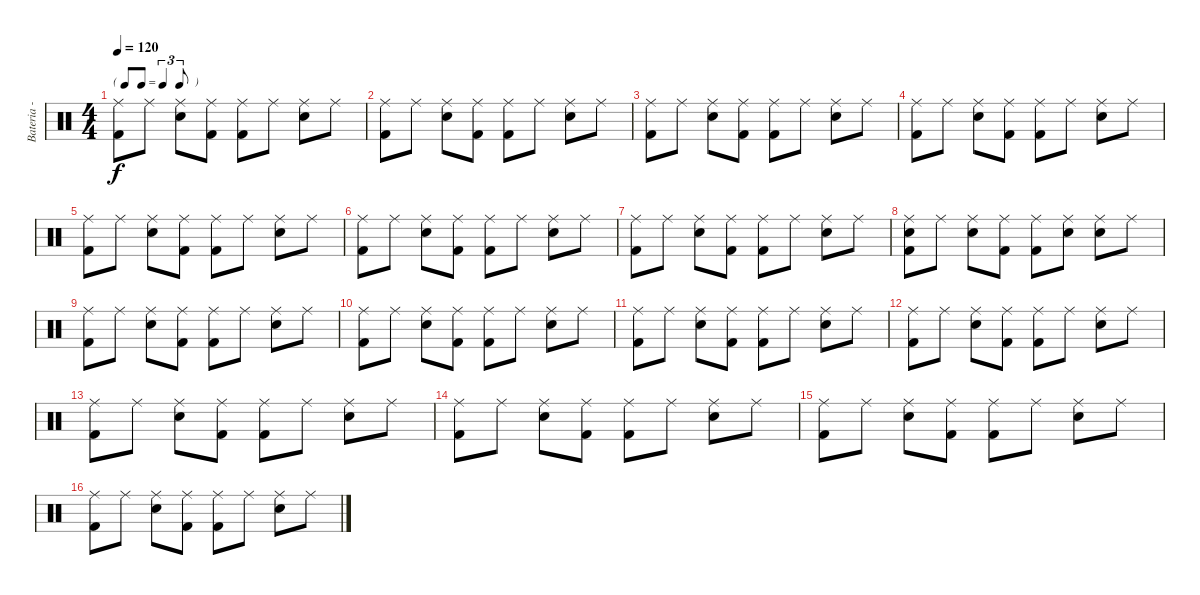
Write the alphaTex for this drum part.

\track ("Bateria - Cris Layton" "Bateria - ") {instrument percussion}
\staff {score}
\articulation defaults
\ts (4 4)
\tf triplet8th
\tempo 120
\clef neutral
\ks c
("Ride (middle)" "Kick (hit) 2").8{dy f} "Ride (middle)".8 ("Ride (middle)" "Electric Snare (hit)").8 ("Ride (middle)" "Kick (hit) 2").8 ("Ride (middle)" "Kick (hit) 2").8 "Ride (middle)".8 ("Ride (middle)" "Electric Snare (hit)").8 "Ride (middle)".8 |
("Ride (middle)" "Kick (hit) 2").8 "Ride (middle)".8 ("Ride (middle)" "Electric Snare (hit)").8 ("Ride (middle)" "Kick (hit) 2").8 ("Ride (middle)" "Kick (hit) 2").8 "Ride (middle)".8 ("Ride (middle)" "Electric Snare (hit)").8 "Ride (middle)".8 |
("Ride (middle)" "Kick (hit) 2").8 "Ride (middle)".8 ("Ride (middle)" "Electric Snare (hit)").8 ("Ride (middle)" "Kick (hit) 2").8 ("Ride (middle)" "Kick (hit) 2").8 "Ride (middle)".8 ("Ride (middle)" "Electric Snare (hit)").8 "Ride (middle)".8 |
("Ride (middle)" "Kick (hit) 2").8 "Ride (middle)".8 ("Ride (middle)" "Electric Snare (hit)").8 ("Ride (middle)" "Kick (hit) 2").8 ("Ride (middle)" "Kick (hit) 2").8 "Ride (middle)".8 ("Ride (middle)" "Electric Snare (hit)").8 "Ride (middle)".8 |
("Ride (middle)" "Kick (hit) 2").8 "Ride (middle)".8 ("Ride (middle)" "Electric Snare (hit)").8 ("Ride (middle)" "Kick (hit) 2").8 ("Ride (middle)" "Kick (hit) 2").8 "Ride (middle)".8 ("Ride (middle)" "Electric Snare (hit)").8 "Ride (middle)".8 |
("Ride (middle)" "Kick (hit) 2").8 "Ride (middle)".8 ("Ride (middle)" "Electric Snare (hit)").8 ("Ride (middle)" "Kick (hit) 2").8 ("Ride (middle)" "Kick (hit) 2").8 "Ride (middle)".8 ("Ride (middle)" "Electric Snare (hit)").8 "Ride (middle)".8 |
("Ride (middle)" "Kick (hit) 2").8 "Ride (middle)".8 ("Ride (middle)" "Electric Snare (hit)").8 ("Ride (middle)" "Kick (hit) 2").8 ("Ride (middle)" "Kick (hit) 2").8 "Ride (middle)".8 ("Ride (middle)" "Electric Snare (hit)").8 "Ride (middle)".8 |
("Ride (middle)" "Kick (hit) 2" "Electric Snare (hit)").8 "Ride (middle)".8 ("Ride (middle)" "Electric Snare (hit)").8 ("Ride (middle)" "Kick (hit) 2").8 ("Ride (middle)" "Kick (hit) 2").8 ("Ride (middle)" "Electric Snare (hit)").8 ("Ride (middle)" "Electric Snare (hit)").8 "Ride (middle)".8 |
("Ride (middle)" "Kick (hit) 2").8 "Ride (middle)".8 ("Ride (middle)" "Electric Snare (hit)").8 ("Ride (middle)" "Kick (hit) 2").8 ("Ride (middle)" "Kick (hit) 2").8 "Ride (middle)".8 ("Ride (middle)" "Electric Snare (hit)").8 "Ride (middle)".8 |
("Ride (middle)" "Kick (hit) 2").8 "Ride (middle)".8 ("Ride (middle)" "Electric Snare (hit)").8 ("Ride (middle)" "Kick (hit) 2").8 ("Ride (middle)" "Kick (hit) 2").8 "Ride (middle)".8 ("Ride (middle)" "Electric Snare (hit)").8 "Ride (middle)".8 |
("Ride (middle)" "Kick (hit) 2").8 "Ride (middle)".8 ("Ride (middle)" "Electric Snare (hit)").8 ("Ride (middle)" "Kick (hit) 2").8 ("Ride (middle)" "Kick (hit) 2").8 "Ride (middle)".8 ("Ride (middle)" "Electric Snare (hit)").8 "Ride (middle)".8 |
("Ride (middle)" "Kick (hit) 2").8 "Ride (middle)".8 ("Ride (middle)" "Electric Snare (hit)").8 ("Ride (middle)" "Kick (hit) 2").8 ("Ride (middle)" "Kick (hit) 2").8 "Ride (middle)".8 ("Ride (middle)" "Electric Snare (hit)").8 "Ride (middle)".8 |
("Ride (middle)" "Kick (hit) 2").8 "Ride (middle)".8 ("Ride (middle)" "Electric Snare (hit)").8 ("Ride (middle)" "Kick (hit) 2").8 ("Ride (middle)" "Kick (hit) 2").8 "Ride (middle)".8 ("Ride (middle)" "Electric Snare (hit)").8 "Ride (middle)".8 |
("Ride (middle)" "Kick (hit) 2").8 "Ride (middle)".8 ("Ride (middle)" "Electric Snare (hit)").8 ("Ride (middle)" "Kick (hit) 2").8 ("Ride (middle)" "Kick (hit) 2").8 "Ride (middle)".8 ("Ride (middle)" "Electric Snare (hit)").8 "Ride (middle)".8 |
("Ride (middle)" "Kick (hit) 2").8 "Ride (middle)".8 ("Ride (middle)" "Electric Snare (hit)").8 ("Ride (middle)" "Kick (hit) 2").8 ("Ride (middle)" "Kick (hit) 2").8 "Ride (middle)".8 ("Ride (middle)" "Electric Snare (hit)").8 "Ride (middle)".8 |
("Ride (middle)" "Kick (hit) 2").8 "Ride (middle)".8 ("Ride (middle)" "Electric Snare (hit)").8 ("Ride (middle)" "Kick (hit) 2").8 ("Ride (middle)" "Kick (hit) 2").8 "Ride (middle)".8 ("Ride (middle)" "Electric Snare (hit)").8 "Ride (middle)".8
